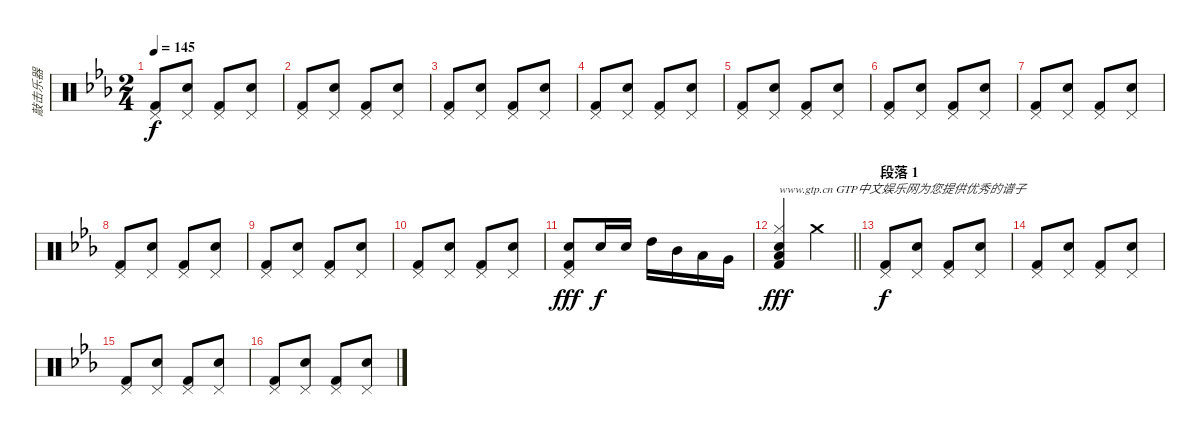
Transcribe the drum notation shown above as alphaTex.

\track ("敲击乐器" "敲击乐器") {instrument percussion}
\staff {score}
\articulation defaults
\ts (2 4)
\tempo 145
\clef neutral
\ks eb
("Pedal Hi-Hat (hit)" "Kick (hit) 2").8{dy f} ("Pedal Hi-Hat (hit)" "Snare (hit) 2").8 ("Pedal Hi-Hat (hit)" "Kick (hit) 2").8 ("Pedal Hi-Hat (hit)" "Snare (hit) 2").8 |
("Pedal Hi-Hat (hit)" "Kick (hit) 2").8 ("Pedal Hi-Hat (hit)" "Snare (hit) 2").8 ("Pedal Hi-Hat (hit)" "Kick (hit) 2").8 ("Pedal Hi-Hat (hit)" "Snare (hit) 2").8 |
("Pedal Hi-Hat (hit)" "Kick (hit) 2").8 ("Pedal Hi-Hat (hit)" "Snare (hit) 2").8 ("Pedal Hi-Hat (hit)" "Kick (hit) 2").8 ("Pedal Hi-Hat (hit)" "Snare (hit) 2").8 |
("Pedal Hi-Hat (hit)" "Kick (hit) 2").8 ("Pedal Hi-Hat (hit)" "Snare (hit) 2").8 ("Pedal Hi-Hat (hit)" "Kick (hit) 2").8 ("Pedal Hi-Hat (hit)" "Snare (hit) 2").8 |
("Pedal Hi-Hat (hit)" "Kick (hit) 2").8 ("Pedal Hi-Hat (hit)" "Snare (hit) 2").8 ("Pedal Hi-Hat (hit)" "Kick (hit) 2").8 ("Pedal Hi-Hat (hit)" "Snare (hit) 2").8 |
("Pedal Hi-Hat (hit)" "Kick (hit) 2").8 ("Pedal Hi-Hat (hit)" "Snare (hit) 2").8 ("Pedal Hi-Hat (hit)" "Kick (hit) 2").8 ("Pedal Hi-Hat (hit)" "Snare (hit) 2").8 |
("Pedal Hi-Hat (hit)" "Kick (hit) 2").8 ("Pedal Hi-Hat (hit)" "Snare (hit) 2").8 ("Pedal Hi-Hat (hit)" "Kick (hit) 2").8 ("Pedal Hi-Hat (hit)" "Snare (hit) 2").8 |
("Pedal Hi-Hat (hit)" "Kick (hit) 2").8 ("Pedal Hi-Hat (hit)" "Snare (hit) 2").8 ("Pedal Hi-Hat (hit)" "Kick (hit) 2").8 ("Pedal Hi-Hat (hit)" "Snare (hit) 2").8 |
("Pedal Hi-Hat (hit)" "Kick (hit) 2").8 ("Pedal Hi-Hat (hit)" "Snare (hit) 2").8 ("Pedal Hi-Hat (hit)" "Kick (hit) 2").8 ("Pedal Hi-Hat (hit)" "Snare (hit) 2").8 |
("Pedal Hi-Hat (hit)" "Kick (hit) 2").8 ("Pedal Hi-Hat (hit)" "Snare (hit) 2").8 ("Pedal Hi-Hat (hit)" "Kick (hit) 2").8 ("Pedal Hi-Hat (hit)" "Snare (hit) 2").8 |
("Pedal Hi-Hat (hit)" "Snare (hit) 2" "Kick (hit) 2").8{dy fff} "Snare (hit) 2".16{dy f} "Snare (hit) 2".16 "High Tom (hit)".16 "Mid Tom (hit)".16 "Low Tom (hit)".16 "Very Low Tom (hit)".16 |
\barLineRight lightlight
("Hi-Hat (closed)" "Snare (hit) 2" "Low Floor Tom (hit)" "Kick (hit) 2").4{txt "www.gtp.cn GTP中文娱乐网为您提供优秀的谱子" dy fff} "Crash medium (hit)".4 |
\section ("" "段落 1")
("Pedal Hi-Hat (hit)" "Kick (hit) 2").8{dy f volume 4} ("Pedal Hi-Hat (hit)" "Snare (hit) 2").8 ("Pedal Hi-Hat (hit)" "Kick (hit) 2").8 ("Pedal Hi-Hat (hit)" "Snare (hit) 2").8 |
("Pedal Hi-Hat (hit)" "Kick (hit) 2").8 ("Pedal Hi-Hat (hit)" "Snare (hit) 2").8 ("Pedal Hi-Hat (hit)" "Kick (hit) 2").8 ("Pedal Hi-Hat (hit)" "Snare (hit) 2").8 |
("Pedal Hi-Hat (hit)" "Kick (hit) 2").8 ("Pedal Hi-Hat (hit)" "Snare (hit) 2").8 ("Pedal Hi-Hat (hit)" "Kick (hit) 2").8 ("Pedal Hi-Hat (hit)" "Snare (hit) 2").8 |
("Pedal Hi-Hat (hit)" "Kick (hit) 2").8 ("Pedal Hi-Hat (hit)" "Snare (hit) 2").8 ("Pedal Hi-Hat (hit)" "Kick (hit) 2").8 ("Pedal Hi-Hat (hit)" "Snare (hit) 2").8
